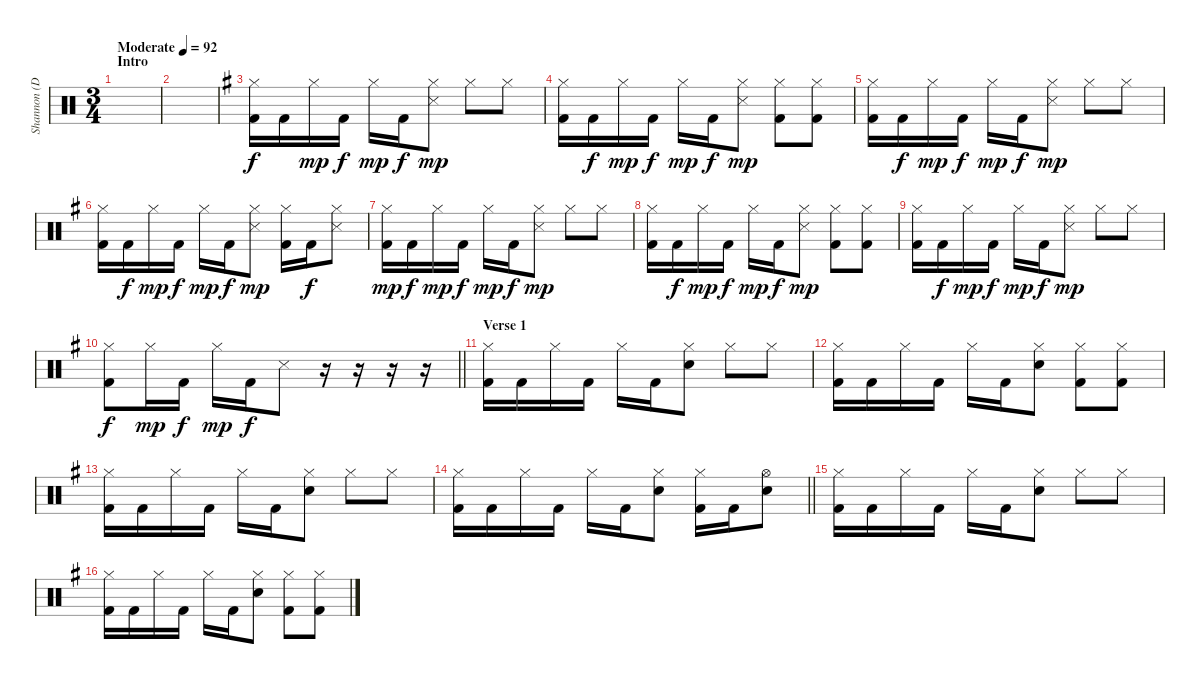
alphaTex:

\track ("Shannon (Drums)" "Shannon (D") {instrument percussion}
\staff {score}
\articulation defaults
\ts (3 4)
\section ("" "Intro")
\tempo (92 "Moderate")
\clef neutral
\ks c
|
|
\ks g
("Hi-Hat (closed)" "Kick (hit) 2").16 "Kick (hit) 2".16{dy f} "Hi-Hat (closed)".16{dy mp} "Kick (hit) 2".16{dy f} "Hi-Hat (closed)".16{dy mp} "Kick (hit) 2".16{dy f} ("Hi-Hat (closed)" "Snare (side stick) 3").8{dy mp} "Hi-Hat (closed)".8 "Hi-Hat (closed)".8 |
("Hi-Hat (closed)" "Kick (hit) 2").16 "Kick (hit) 2".16{dy f} "Hi-Hat (closed)".16{dy mp} "Kick (hit) 2".16{dy f} "Hi-Hat (closed)".16{dy mp} "Kick (hit) 2".16{dy f} ("Hi-Hat (closed)" "Snare (side stick) 3").8{dy mp} ("Hi-Hat (closed)" "Kick (hit) 2").8 ("Hi-Hat (closed)" "Kick (hit) 2").8 |
("Hi-Hat (closed)" "Kick (hit) 2").16 "Kick (hit) 2".16{dy f} "Hi-Hat (closed)".16{dy mp} "Kick (hit) 2".16{dy f} "Hi-Hat (closed)".16{dy mp} "Kick (hit) 2".16{dy f} ("Hi-Hat (closed)" "Snare (side stick) 3").8{dy mp} "Hi-Hat (closed)".8 "Hi-Hat (closed)".8 |
("Hi-Hat (closed)" "Kick (hit) 2").16 "Kick (hit) 2".16{dy f} "Hi-Hat (closed)".16{dy mp} "Kick (hit) 2".16{dy f} "Hi-Hat (closed)".16{dy mp} "Kick (hit) 2".16{dy f} ("Hi-Hat (closed)" "Snare (side stick) 3").8{dy mp} ("Hi-Hat (closed)" "Kick (hit) 2").16 "Kick (hit) 2".16{dy f} ("Hi-Hat (closed)" "Snare (side stick) 3").8 |
("Hi-Hat (closed)" "Kick (hit) 2").16{dy mp} "Kick (hit) 2".16{dy f} "Hi-Hat (closed)".16{dy mp} "Kick (hit) 2".16{dy f} "Hi-Hat (closed)".16{dy mp} "Kick (hit) 2".16{dy f} ("Hi-Hat (closed)" "Snare (side stick) 3").8{dy mp} "Hi-Hat (closed)".8 "Hi-Hat (closed)".8 |
("Hi-Hat (closed)" "Kick (hit) 2").16 "Kick (hit) 2".16{dy f} "Hi-Hat (closed)".16{dy mp} "Kick (hit) 2".16{dy f} "Hi-Hat (closed)".16{dy mp} "Kick (hit) 2".16{dy f} ("Hi-Hat (closed)" "Snare (side stick) 3").8{dy mp} ("Hi-Hat (closed)" "Kick (hit) 2").8 ("Hi-Hat (closed)" "Kick (hit) 2").8 |
("Hi-Hat (closed)" "Kick (hit) 2").16 "Kick (hit) 2".16{dy f} "Hi-Hat (closed)".16{dy mp} "Kick (hit) 2".16{dy f} "Hi-Hat (closed)".16{dy mp} "Kick (hit) 2".16{dy f} ("Hi-Hat (closed)" "Snare (side stick) 3").8{dy mp} "Hi-Hat (closed)".8 "Hi-Hat (closed)".8 |
\barLineRight lightlight
("Hi-Hat (closed)" "Kick (hit) 2").8{dy f} "Hi-Hat (closed)".16{dy mp} "Kick (hit) 2".16{dy f} "Hi-Hat (closed)".16{dy mp} "Kick (hit) 2".16{dy f} "Snare (side stick) 3".8 r.16 r.16 r.16 r.16 |
\section ("" "Verse 1")
("Hi-Hat (closed)" "Kick (hit) 2").16 "Kick (hit) 2".16 "Hi-Hat (closed)".16 "Kick (hit) 2".16 "Hi-Hat (closed)".16 "Kick (hit) 2".16 ("Hi-Hat (closed)" "Electric Snare (hit)").8 "Hi-Hat (closed)".8 "Hi-Hat (closed)".8 |
("Hi-Hat (closed)" "Kick (hit) 2").16 "Kick (hit) 2".16 "Hi-Hat (closed)".16 "Kick (hit) 2".16 "Hi-Hat (closed)".16 "Kick (hit) 2".16 ("Hi-Hat (closed)" "Electric Snare (hit)").8 ("Hi-Hat (closed)" "Kick (hit) 2").8 ("Hi-Hat (closed)" "Kick (hit) 2").8 |
("Hi-Hat (closed)" "Kick (hit) 2").16 "Kick (hit) 2".16 "Hi-Hat (closed)".16 "Kick (hit) 2".16 "Hi-Hat (closed)".16 "Kick (hit) 2".16 ("Hi-Hat (closed)" "Electric Snare (hit)").8 "Hi-Hat (closed)".8 "Hi-Hat (closed)".8 |
\barLineRight lightlight
("Hi-Hat (closed)" "Kick (hit) 2").16 "Kick (hit) 2".16 "Hi-Hat (closed)".16 "Kick (hit) 2".16 "Hi-Hat (closed)".16 "Kick (hit) 2".16 ("Hi-Hat (closed)" "Electric Snare (hit)").8 ("Hi-Hat (closed)" "Kick (hit) 2").16 "Kick (hit) 2".16 ("Hi-Hat (open)" "Electric Snare (hit)").8 |
("Hi-Hat (closed)" "Kick (hit) 2").16 "Kick (hit) 2".16 "Hi-Hat (closed)".16 "Kick (hit) 2".16 "Hi-Hat (closed)".16 "Kick (hit) 2".16 ("Hi-Hat (closed)" "Electric Snare (hit)").8 "Hi-Hat (closed)".8 "Hi-Hat (closed)".8 |
("Hi-Hat (closed)" "Kick (hit) 2").16 "Kick (hit) 2".16 "Hi-Hat (closed)".16 "Kick (hit) 2".16 "Hi-Hat (closed)".16 "Kick (hit) 2".16 ("Hi-Hat (closed)" "Electric Snare (hit)").8 ("Hi-Hat (closed)" "Kick (hit) 2").8 ("Hi-Hat (closed)" "Kick (hit) 2").8
